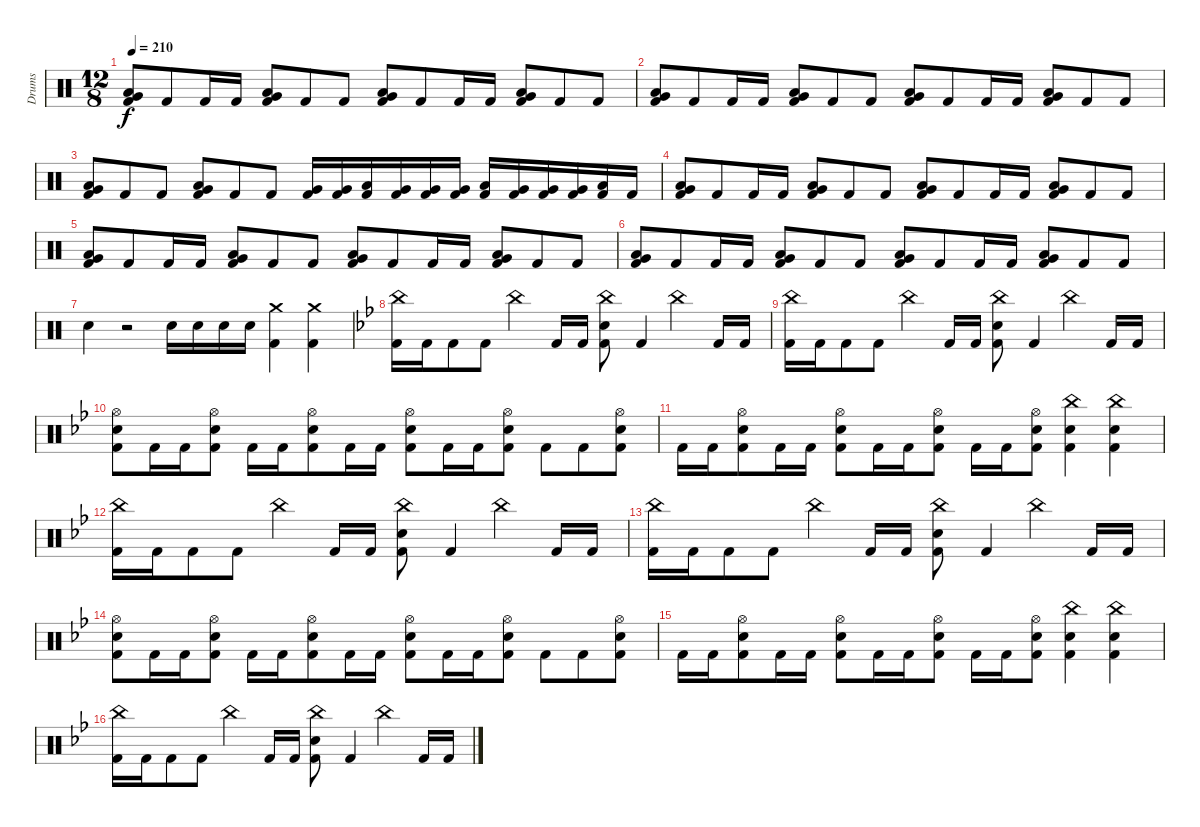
\track ("Drums" "Drums") {instrument percussion}
\staff {score}
\articulation defaults
\ts (12 8)
\tempo 210
\clef neutral
\ks c
("Very Low Tom (hit)" "Low Tom (hit)" "Kick (hit) 2").8{dy f} "Kick (hit) 2".8 "Kick (hit) 2".16 "Kick (hit) 2".16 ("Very Low Tom (hit)" "Low Tom (hit)" "Kick (hit) 2").8 "Kick (hit) 2".8 "Kick (hit) 2".8 ("Very Low Tom (hit)" "Low Tom (hit)" "Kick (hit) 2").8 "Kick (hit) 2".8 "Kick (hit) 2".16 "Kick (hit) 2".16 ("Very Low Tom (hit)" "Low Tom (hit)" "Kick (hit) 2").8 "Kick (hit) 2".8 "Kick (hit) 2".8 |
("Very Low Tom (hit)" "Low Tom (hit)" "Kick (hit) 2").8 "Kick (hit) 2".8 "Kick (hit) 2".16 "Kick (hit) 2".16 ("Very Low Tom (hit)" "Low Tom (hit)" "Kick (hit) 2").8 "Kick (hit) 2".8 "Kick (hit) 2".8 ("Very Low Tom (hit)" "Low Tom (hit)" "Kick (hit) 2").8 "Kick (hit) 2".8 "Kick (hit) 2".16 "Kick (hit) 2".16 ("Very Low Tom (hit)" "Low Tom (hit)" "Kick (hit) 2").8 "Kick (hit) 2".8 "Kick (hit) 2".8 |
("Very Low Tom (hit)" "Low Tom (hit)" "Kick (hit) 2").8 "Kick (hit) 2".8 "Kick (hit) 2".8 ("Very Low Tom (hit)" "Low Tom (hit)" "Kick (hit) 2").8 "Kick (hit) 2".8 "Kick (hit) 2".8 ("Very Low Tom (hit)" "Kick (hit) 2").16 ("Very Low Tom (hit)" "Kick (hit) 2").16 ("Low Tom (hit)" "Kick (hit) 2").16 ("Very Low Tom (hit)" "Kick (hit) 2").16 ("Very Low Tom (hit)" "Kick (hit) 2").16 ("Very Low Tom (hit)" "Kick (hit) 2").16 ("Low Tom (hit)" "Kick (hit) 2").16 ("Very Low Tom (hit)" "Kick (hit) 2").16 ("Very Low Tom (hit)" "Kick (hit) 2").16 ("Very Low Tom (hit)" "Kick (hit) 2").16 ("Low Tom (hit)" "Kick (hit) 2").16 "Kick (hit) 2".16 |
("Very Low Tom (hit)" "Low Tom (hit)" "Kick (hit) 2").8 "Kick (hit) 2".8 "Kick (hit) 2".16 "Kick (hit) 2".16 ("Very Low Tom (hit)" "Low Tom (hit)" "Kick (hit) 2").8 "Kick (hit) 2".8 "Kick (hit) 2".8 ("Very Low Tom (hit)" "Low Tom (hit)" "Kick (hit) 2").8 "Kick (hit) 2".8 "Kick (hit) 2".16 "Kick (hit) 2".16 ("Very Low Tom (hit)" "Low Tom (hit)" "Kick (hit) 2").8 "Kick (hit) 2".8 "Kick (hit) 2".8 |
("Very Low Tom (hit)" "Low Tom (hit)" "Kick (hit) 2").8 "Kick (hit) 2".8 "Kick (hit) 2".16 "Kick (hit) 2".16 ("Very Low Tom (hit)" "Low Tom (hit)" "Kick (hit) 2").8 "Kick (hit) 2".8 "Kick (hit) 2".8 ("Very Low Tom (hit)" "Low Tom (hit)" "Kick (hit) 2").8 "Kick (hit) 2".8 "Kick (hit) 2".16 "Kick (hit) 2".16 ("Very Low Tom (hit)" "Low Tom (hit)" "Kick (hit) 2").8 "Kick (hit) 2".8 "Kick (hit) 2".8 |
("Very Low Tom (hit)" "Low Tom (hit)" "Kick (hit) 2").8 "Kick (hit) 2".8 "Kick (hit) 2".16 "Kick (hit) 2".16 ("Very Low Tom (hit)" "Low Tom (hit)" "Kick (hit) 2").8 "Kick (hit) 2".8 "Kick (hit) 2".8 ("Very Low Tom (hit)" "Low Tom (hit)" "Kick (hit) 2").8 "Kick (hit) 2".8 "Kick (hit) 2".16 "Kick (hit) 2".16 ("Very Low Tom (hit)" "Low Tom (hit)" "Kick (hit) 2").8 "Kick (hit) 2".8 "Kick (hit) 2".8 |
"Snare (hit) 2".4 r.2 "Snare (hit) 2".16 "Snare (hit) 2".16 "Snare (hit) 2".16 "Snare (hit) 2".16 ("Crash medium (hit)" "Kick (hit) 2").4 ("Crash medium (hit)" "Kick (hit) 2").4 |
\ks bb
("China (hit)" "Kick (hit) 2").16 "Kick (hit) 2".16 "Kick (hit) 2".8 "Kick (hit) 2".8 "China (hit)".4 "Kick (hit) 2".16 "Kick (hit) 2".16 ("China (hit)" "Snare (hit) 2" "Kick (hit) 2").8 "Kick (hit) 2".4 "China (hit)".4 "Kick (hit) 2".16 "Kick (hit) 2".16 |
("China (hit)" "Kick (hit) 2").16 "Kick (hit) 2".16 "Kick (hit) 2".8 "Kick (hit) 2".8 "China (hit)".4 "Kick (hit) 2".16 "Kick (hit) 2".16 ("China (hit)" "Snare (hit) 2" "Kick (hit) 2").8 "Kick (hit) 2".4 "China (hit)".4 "Kick (hit) 2".16 "Kick (hit) 2".16 |
("Hi-Hat (open)" "Snare (hit) 2" "Kick (hit) 2").8 "Kick (hit) 2".16 "Kick (hit) 2".16 ("Hi-Hat (open)" "Snare (hit) 2" "Kick (hit) 2").8 "Kick (hit) 2".16 "Kick (hit) 2".16 ("Hi-Hat (open)" "Snare (hit) 2" "Kick (hit) 2").8 "Kick (hit) 2".16 "Kick (hit) 2".16 ("Hi-Hat (open)" "Snare (hit) 2" "Kick (hit) 2").8 "Kick (hit) 2".16 "Kick (hit) 2".16 ("Hi-Hat (open)" "Snare (hit) 2" "Kick (hit) 2").8 "Kick (hit) 2".8 "Kick (hit) 2".8 ("Hi-Hat (open)" "Snare (hit) 2" "Kick (hit) 2").8 |
"Kick (hit) 2".16 "Kick (hit) 2".16 ("Hi-Hat (open)" "Snare (hit) 2" "Kick (hit) 2").8 "Kick (hit) 2".16 "Kick (hit) 2".16 ("Hi-Hat (open)" "Snare (hit) 2" "Kick (hit) 2").8 "Kick (hit) 2".16 "Kick (hit) 2".16 ("Hi-Hat (open)" "Snare (hit) 2" "Kick (hit) 2").8 "Kick (hit) 2".16 "Kick (hit) 2".16 ("Hi-Hat (open)" "Snare (hit) 2" "Kick (hit) 2").8 ("China (hit)" "Snare (hit) 2" "Kick (hit) 2").4 ("China (hit)" "Snare (hit) 2" "Kick (hit) 2").4 |
("China (hit)" "Kick (hit) 2").16 "Kick (hit) 2".16 "Kick (hit) 2".8 "Kick (hit) 2".8 "China (hit)".4 "Kick (hit) 2".16 "Kick (hit) 2".16 ("China (hit)" "Snare (hit) 2" "Kick (hit) 2").8 "Kick (hit) 2".4 "China (hit)".4 "Kick (hit) 2".16 "Kick (hit) 2".16 |
("China (hit)" "Kick (hit) 2").16 "Kick (hit) 2".16 "Kick (hit) 2".8 "Kick (hit) 2".8 "China (hit)".4 "Kick (hit) 2".16 "Kick (hit) 2".16 ("China (hit)" "Snare (hit) 2" "Kick (hit) 2").8 "Kick (hit) 2".4 "China (hit)".4 "Kick (hit) 2".16 "Kick (hit) 2".16 |
("Hi-Hat (open)" "Snare (hit) 2" "Kick (hit) 2").8 "Kick (hit) 2".16 "Kick (hit) 2".16 ("Hi-Hat (open)" "Snare (hit) 2" "Kick (hit) 2").8 "Kick (hit) 2".16 "Kick (hit) 2".16 ("Hi-Hat (open)" "Snare (hit) 2" "Kick (hit) 2").8 "Kick (hit) 2".16 "Kick (hit) 2".16 ("Hi-Hat (open)" "Snare (hit) 2" "Kick (hit) 2").8 "Kick (hit) 2".16 "Kick (hit) 2".16 ("Hi-Hat (open)" "Snare (hit) 2" "Kick (hit) 2").8 "Kick (hit) 2".8 "Kick (hit) 2".8 ("Hi-Hat (open)" "Snare (hit) 2" "Kick (hit) 2").8 |
"Kick (hit) 2".16 "Kick (hit) 2".16 ("Hi-Hat (open)" "Snare (hit) 2" "Kick (hit) 2").8 "Kick (hit) 2".16 "Kick (hit) 2".16 ("Hi-Hat (open)" "Snare (hit) 2" "Kick (hit) 2").8 "Kick (hit) 2".16 "Kick (hit) 2".16 ("Hi-Hat (open)" "Snare (hit) 2" "Kick (hit) 2").8 "Kick (hit) 2".16 "Kick (hit) 2".16 ("Hi-Hat (open)" "Snare (hit) 2" "Kick (hit) 2").8 ("China (hit)" "Snare (hit) 2" "Kick (hit) 2").4 ("China (hit)" "Snare (hit) 2" "Kick (hit) 2").4 |
("China (hit)" "Kick (hit) 2").16 "Kick (hit) 2".16 "Kick (hit) 2".8 "Kick (hit) 2".8 "China (hit)".4 "Kick (hit) 2".16 "Kick (hit) 2".16 ("China (hit)" "Snare (hit) 2" "Kick (hit) 2").8 "Kick (hit) 2".4 "China (hit)".4 "Kick (hit) 2".16 "Kick (hit) 2".16
